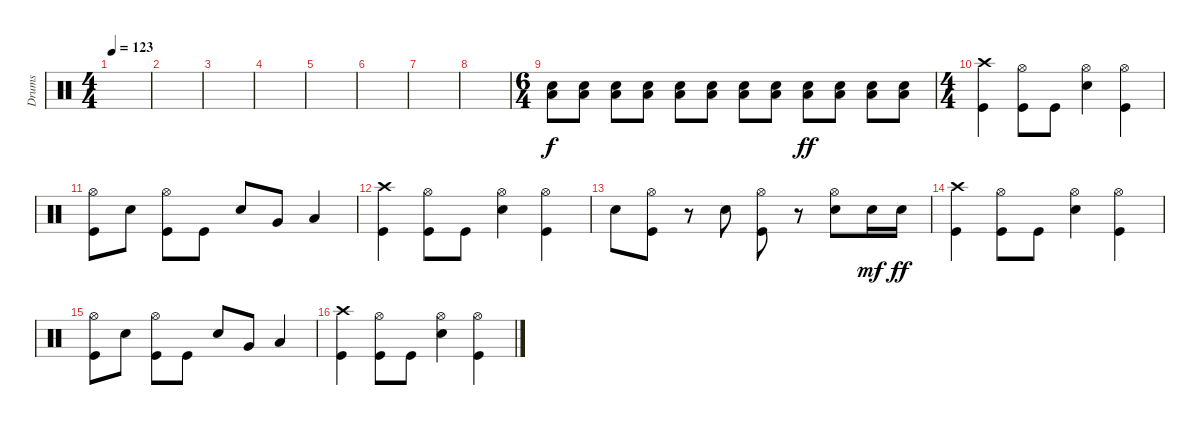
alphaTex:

\track ("Drums" "Drums") {instrument percussion}
\staff {score}
\articulation defaults
\ts (4 4)
\tempo 123
\clef neutral
\ks c
|
|
|
|
|
|
|
|
\ts (6 4)
("Low Floor Tom (hit)" "Electric Snare (hit)").8 ("Low Floor Tom (hit)" "Electric Snare (hit)").8 ("Low Floor Tom (hit)" "Electric Snare (hit)").8 ("Low Floor Tom (hit)" "Electric Snare (hit)").8 ("Low Floor Tom (hit)" "Electric Snare (hit)").8{dy f} ("Low Floor Tom (hit)" "Electric Snare (hit)").8 ("Low Floor Tom (hit)" "Electric Snare (hit)").8 ("Low Floor Tom (hit)" "Electric Snare (hit)").8 ("Low Floor Tom (hit)" "Electric Snare (hit)").8{dy ff} ("Low Floor Tom (hit)" "Electric Snare (hit)").8 ("Low Floor Tom (hit)" "Electric Snare (hit)").8 ("Low Floor Tom (hit)" "Electric Snare (hit)").8 |
\ts (4 4)
("Crash high (hit)" "Kick (hit)").4 ("Hi-Hat (open)" "Kick (hit)").8 "Kick (hit)".8 ("Hi-Hat (open)" "Electric Snare (hit)").4 ("Hi-Hat (open)" "Kick (hit)").4 |
("Hi-Hat (open)" "Kick (hit)").8 "Electric Snare (hit)".8 ("Hi-Hat (open)" "Kick (hit)").8 "Kick (hit)".8 "Electric Snare (hit)".8 "Very Low Tom (hit)".8 "Low Floor Tom (hit)".4 |
("Crash high (hit)" "Kick (hit)").4 ("Hi-Hat (open)" "Kick (hit)").8 "Kick (hit)".8 ("Hi-Hat (open)" "Electric Snare (hit)").4 ("Hi-Hat (open)" "Kick (hit)").4 |
"Electric Snare (hit)".8 ("Hi-Hat (open)" "Kick (hit)").8 r.8 "Electric Snare (hit)".8 ("Hi-Hat (open)" "Kick (hit)").8 r.8 ("Hi-Hat (open)" "Electric Snare (hit)").8 "Electric Snare (hit)".16{dy mf} "Electric Snare (hit)".16{dy ff} |
("Crash high (hit)" "Kick (hit)").4 ("Hi-Hat (open)" "Kick (hit)").8 "Kick (hit)".8 ("Hi-Hat (open)" "Electric Snare (hit)").4 ("Hi-Hat (open)" "Kick (hit)").4 |
("Hi-Hat (open)" "Kick (hit)").8 "Electric Snare (hit)".8 ("Hi-Hat (open)" "Kick (hit)").8 "Kick (hit)".8 "Electric Snare (hit)".8 "Very Low Tom (hit)".8 "Low Floor Tom (hit)".4 |
("Crash high (hit)" "Kick (hit)").4 ("Hi-Hat (open)" "Kick (hit)").8 "Kick (hit)".8 ("Hi-Hat (open)" "Electric Snare (hit)").4 ("Hi-Hat (open)" "Kick (hit)").4
